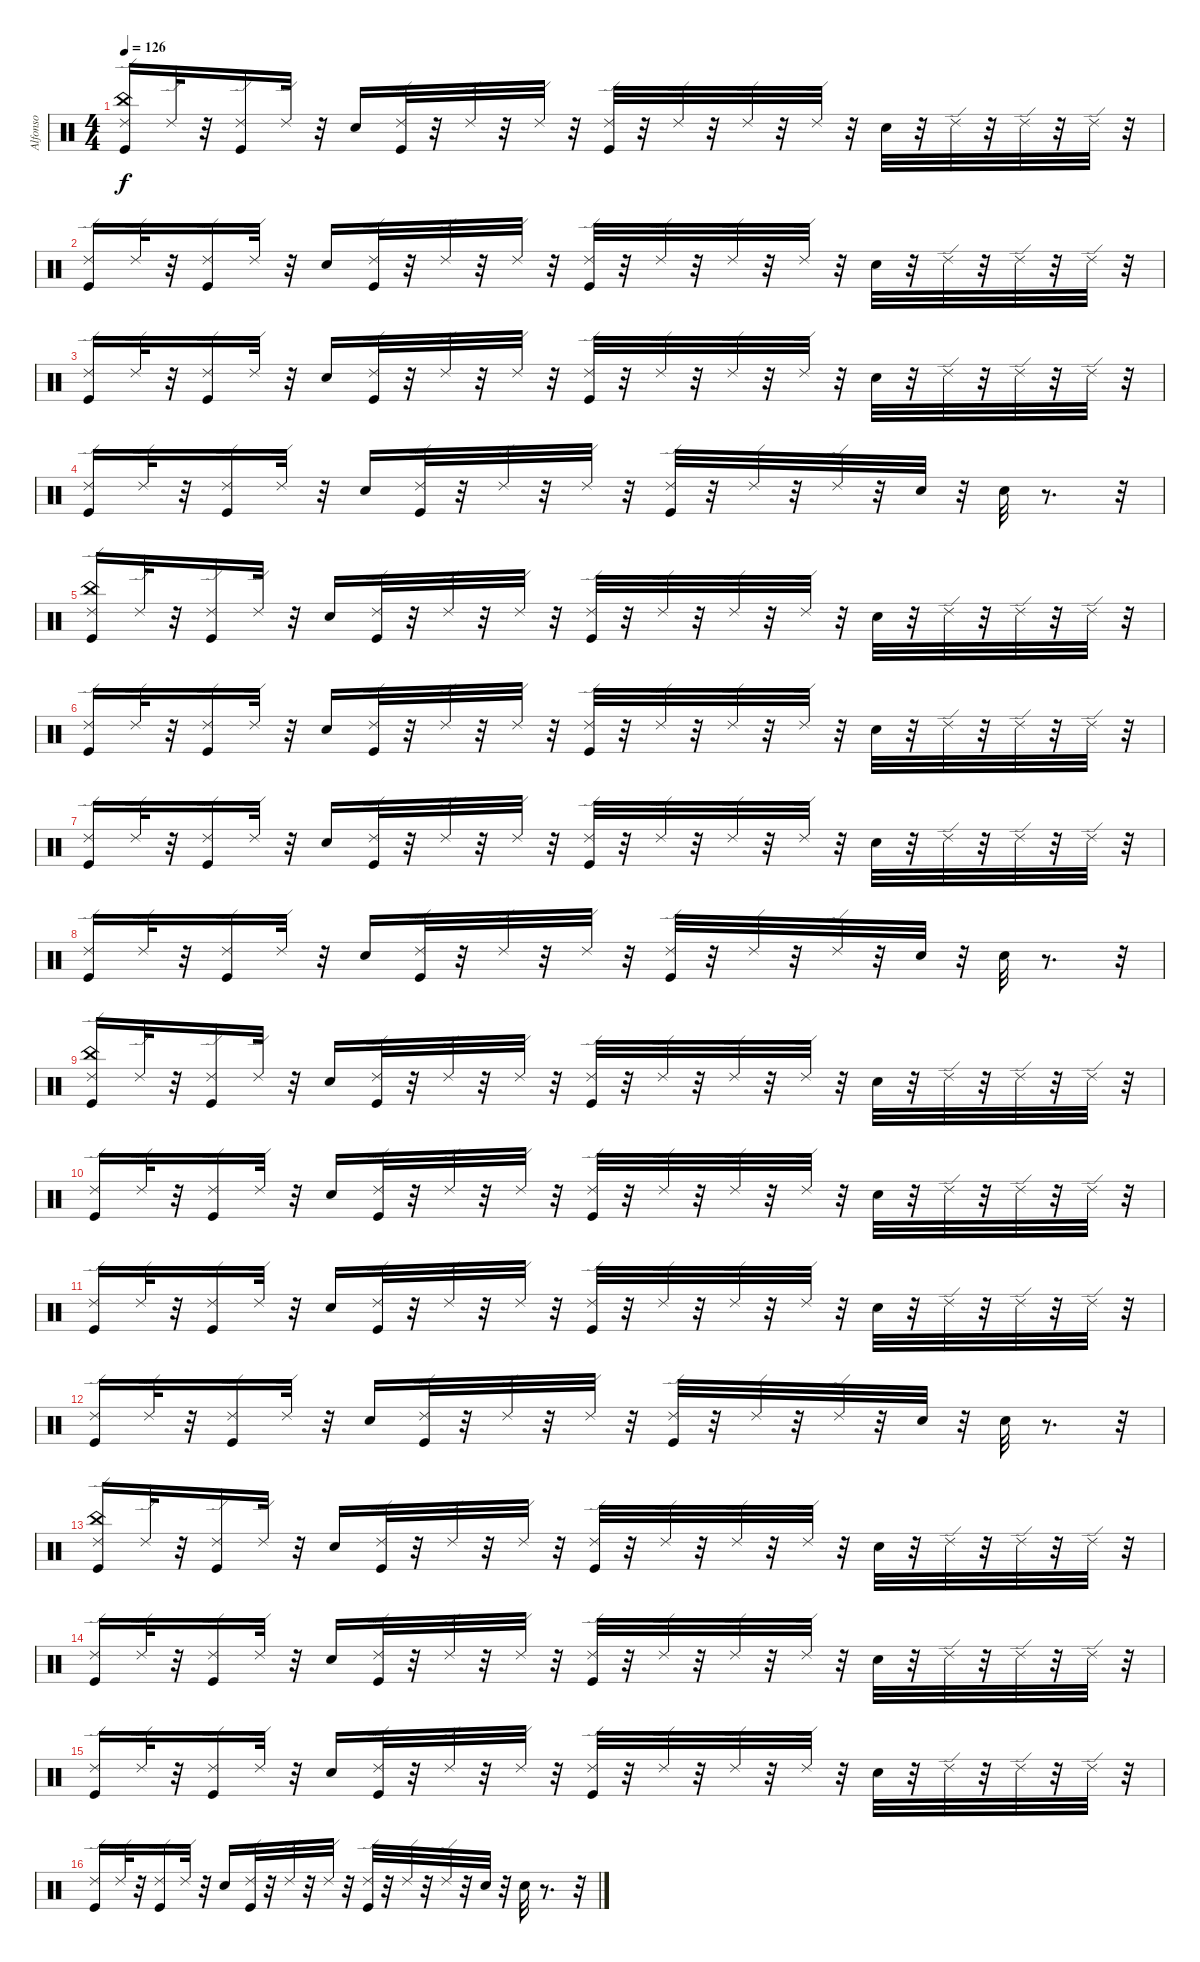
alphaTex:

\track ("Alfonso" "Alfonso") {instrument percussion}
\staff {score}
\articulation defaults
\ts (4 4)
\tempo 126
\clef neutral
\ks c
("Ride (edge) 2" "China (hit)" "Kick (hit)").16{dy f} "Ride (edge) 2".32 r.32 ("Ride (edge) 2" "Kick (hit)").16 "Ride (edge) 2".32 r.32 "Snare (hit) 2".16 ("Kick (hit)" "Ride (edge) 2").32 r.32 "Ride (edge) 2".32 r.32 "Ride (edge) 2".32 r.32 ("Kick (hit)" "Ride (edge) 2").32 r.32 "Ride (edge) 2".32 r.32 "Ride (edge) 2".32 r.32 "Ride (edge) 2".32 r.32 "Snare (hit) 2".32 r.32 "Ride (edge) 2".32 r.32 "Ride (edge) 2".32 r.32 "Ride (edge) 2".32 r.32 |
("Ride (edge) 2" "Kick (hit)").16 "Ride (edge) 2".32 r.32 ("Kick (hit)" "Ride (edge) 2").16 "Ride (edge) 2".32 r.32 "Snare (hit) 2".16 ("Ride (edge) 2" "Kick (hit)").32 r.32 "Ride (edge) 2".32 r.32 "Ride (edge) 2".32 r.32 ("Kick (hit)" "Ride (edge) 2").32 r.32 "Ride (edge) 2".32 r.32 "Ride (edge) 2".32 r.32 "Ride (edge) 2".32 r.32 "Snare (hit) 2".32 r.32 "Ride (edge) 2".32 r.32 "Ride (edge) 2".32 r.32 "Ride (edge) 2".32 r.32 |
("Kick (hit)" "Ride (edge) 2").16 "Ride (edge) 2".32 r.32 ("Kick (hit)" "Ride (edge) 2").16 "Ride (edge) 2".32 r.32 "Snare (hit) 2".16 ("Ride (edge) 2" "Kick (hit)").32 r.32 "Ride (edge) 2".32 r.32 "Ride (edge) 2".32 r.32 ("Ride (edge) 2" "Kick (hit)").32 r.32 "Ride (edge) 2".32 r.32 "Ride (edge) 2".32 r.32 "Ride (edge) 2".32 r.32 "Snare (hit) 2".32 r.32 "Ride (edge) 2".32 r.32 "Ride (edge) 2".32 r.32 "Ride (edge) 2".32 r.32 |
("Kick (hit)" "Ride (edge) 2").16 "Ride (edge) 2".32 r.32 ("Kick (hit)" "Ride (edge) 2").16 "Ride (edge) 2".32 r.32 "Snare (hit) 2".16 ("Kick (hit)" "Ride (edge) 2").32 r.32 "Ride (edge) 2".32 r.32 "Ride (edge) 2".32 r.32 ("Kick (hit)" "Ride (edge) 2").32 r.32 "Ride (edge) 2".32 r.32 "Ride (edge) 2".32 r.32 "Snare (hit) 2".32 r.32 "Snare (hit) 2".32 r.8{d} r.32 |
("Ride (edge) 2" "China (hit)" "Kick (hit)").16 "Ride (edge) 2".32 r.32 ("Ride (edge) 2" "Kick (hit)").16 "Ride (edge) 2".32 r.32 "Snare (hit) 2".16 ("Kick (hit)" "Ride (edge) 2").32 r.32 "Ride (edge) 2".32 r.32 "Ride (edge) 2".32 r.32 ("Kick (hit)" "Ride (edge) 2").32 r.32 "Ride (edge) 2".32 r.32 "Ride (edge) 2".32 r.32 "Ride (edge) 2".32 r.32 "Snare (hit) 2".32 r.32 "Ride (edge) 2".32 r.32 "Ride (edge) 2".32 r.32 "Ride (edge) 2".32 r.32 |
("Ride (edge) 2" "Kick (hit)").16 "Ride (edge) 2".32 r.32 ("Kick (hit)" "Ride (edge) 2").16 "Ride (edge) 2".32 r.32 "Snare (hit) 2".16 ("Ride (edge) 2" "Kick (hit)").32 r.32 "Ride (edge) 2".32 r.32 "Ride (edge) 2".32 r.32 ("Kick (hit)" "Ride (edge) 2").32 r.32 "Ride (edge) 2".32 r.32 "Ride (edge) 2".32 r.32 "Ride (edge) 2".32 r.32 "Snare (hit) 2".32 r.32 "Ride (edge) 2".32 r.32 "Ride (edge) 2".32 r.32 "Ride (edge) 2".32 r.32 |
("Kick (hit)" "Ride (edge) 2").16 "Ride (edge) 2".32 r.32 ("Kick (hit)" "Ride (edge) 2").16 "Ride (edge) 2".32 r.32 "Snare (hit) 2".16 ("Ride (edge) 2" "Kick (hit)").32 r.32 "Ride (edge) 2".32 r.32 "Ride (edge) 2".32 r.32 ("Ride (edge) 2" "Kick (hit)").32 r.32 "Ride (edge) 2".32 r.32 "Ride (edge) 2".32 r.32 "Ride (edge) 2".32 r.32 "Snare (hit) 2".32 r.32 "Ride (edge) 2".32 r.32 "Ride (edge) 2".32 r.32 "Ride (edge) 2".32 r.32 |
("Kick (hit)" "Ride (edge) 2").16 "Ride (edge) 2".32 r.32 ("Kick (hit)" "Ride (edge) 2").16 "Ride (edge) 2".32 r.32 "Snare (hit) 2".16 ("Kick (hit)" "Ride (edge) 2").32 r.32 "Ride (edge) 2".32 r.32 "Ride (edge) 2".32 r.32 ("Kick (hit)" "Ride (edge) 2").32 r.32 "Ride (edge) 2".32 r.32 "Ride (edge) 2".32 r.32 "Snare (hit) 2".32 r.32 "Snare (hit) 2".32 r.8{d} r.32 |
("Ride (edge) 2" "China (hit)" "Kick (hit)").16 "Ride (edge) 2".32 r.32 ("Ride (edge) 2" "Kick (hit)").16 "Ride (edge) 2".32 r.32 "Snare (hit) 2".16 ("Kick (hit)" "Ride (edge) 2").32 r.32 "Ride (edge) 2".32 r.32 "Ride (edge) 2".32 r.32 ("Kick (hit)" "Ride (edge) 2").32 r.32 "Ride (edge) 2".32 r.32 "Ride (edge) 2".32 r.32 "Ride (edge) 2".32 r.32 "Snare (hit) 2".32 r.32 "Ride (edge) 2".32 r.32 "Ride (edge) 2".32 r.32 "Ride (edge) 2".32 r.32 |
("Ride (edge) 2" "Kick (hit)").16 "Ride (edge) 2".32 r.32 ("Kick (hit)" "Ride (edge) 2").16 "Ride (edge) 2".32 r.32 "Snare (hit) 2".16 ("Ride (edge) 2" "Kick (hit)").32 r.32 "Ride (edge) 2".32 r.32 "Ride (edge) 2".32 r.32 ("Kick (hit)" "Ride (edge) 2").32 r.32 "Ride (edge) 2".32 r.32 "Ride (edge) 2".32 r.32 "Ride (edge) 2".32 r.32 "Snare (hit) 2".32 r.32 "Ride (edge) 2".32 r.32 "Ride (edge) 2".32 r.32 "Ride (edge) 2".32 r.32 |
("Kick (hit)" "Ride (edge) 2").16 "Ride (edge) 2".32 r.32 ("Kick (hit)" "Ride (edge) 2").16 "Ride (edge) 2".32 r.32 "Snare (hit) 2".16 ("Ride (edge) 2" "Kick (hit)").32 r.32 "Ride (edge) 2".32 r.32 "Ride (edge) 2".32 r.32 ("Ride (edge) 2" "Kick (hit)").32 r.32 "Ride (edge) 2".32 r.32 "Ride (edge) 2".32 r.32 "Ride (edge) 2".32 r.32 "Snare (hit) 2".32 r.32 "Ride (edge) 2".32 r.32 "Ride (edge) 2".32 r.32 "Ride (edge) 2".32 r.32 |
("Kick (hit)" "Ride (edge) 2").16 "Ride (edge) 2".32 r.32 ("Kick (hit)" "Ride (edge) 2").16 "Ride (edge) 2".32 r.32 "Snare (hit) 2".16 ("Kick (hit)" "Ride (edge) 2").32 r.32 "Ride (edge) 2".32 r.32 "Ride (edge) 2".32 r.32 ("Kick (hit)" "Ride (edge) 2").32 r.32 "Ride (edge) 2".32 r.32 "Ride (edge) 2".32 r.32 "Snare (hit) 2".32 r.32 "Snare (hit) 2".32 r.8{d} r.32 |
("Ride (edge) 2" "China (hit)" "Kick (hit)").16 "Ride (edge) 2".32 r.32 ("Ride (edge) 2" "Kick (hit)").16 "Ride (edge) 2".32 r.32 "Snare (hit) 2".16 ("Kick (hit)" "Ride (edge) 2").32 r.32 "Ride (edge) 2".32 r.32 "Ride (edge) 2".32 r.32 ("Kick (hit)" "Ride (edge) 2").32 r.32 "Ride (edge) 2".32 r.32 "Ride (edge) 2".32 r.32 "Ride (edge) 2".32 r.32 "Snare (hit) 2".32 r.32 "Ride (edge) 2".32 r.32 "Ride (edge) 2".32 r.32 "Ride (edge) 2".32 r.32 |
("Ride (edge) 2" "Kick (hit)").16 "Ride (edge) 2".32 r.32 ("Kick (hit)" "Ride (edge) 2").16 "Ride (edge) 2".32 r.32 "Snare (hit) 2".16 ("Ride (edge) 2" "Kick (hit)").32 r.32 "Ride (edge) 2".32 r.32 "Ride (edge) 2".32 r.32 ("Kick (hit)" "Ride (edge) 2").32 r.32 "Ride (edge) 2".32 r.32 "Ride (edge) 2".32 r.32 "Ride (edge) 2".32 r.32 "Snare (hit) 2".32 r.32 "Ride (edge) 2".32 r.32 "Ride (edge) 2".32 r.32 "Ride (edge) 2".32 r.32 |
("Kick (hit)" "Ride (edge) 2").16 "Ride (edge) 2".32 r.32 ("Kick (hit)" "Ride (edge) 2").16 "Ride (edge) 2".32 r.32 "Snare (hit) 2".16 ("Ride (edge) 2" "Kick (hit)").32 r.32 "Ride (edge) 2".32 r.32 "Ride (edge) 2".32 r.32 ("Ride (edge) 2" "Kick (hit)").32 r.32 "Ride (edge) 2".32 r.32 "Ride (edge) 2".32 r.32 "Ride (edge) 2".32 r.32 "Snare (hit) 2".32 r.32 "Ride (edge) 2".32 r.32 "Ride (edge) 2".32 r.32 "Ride (edge) 2".32 r.32 |
("Kick (hit)" "Ride (edge) 2").16 "Ride (edge) 2".32 r.32 ("Kick (hit)" "Ride (edge) 2").16 "Ride (edge) 2".32 r.32 "Snare (hit) 2".16 ("Kick (hit)" "Ride (edge) 2").32 r.32 "Ride (edge) 2".32 r.32 "Ride (edge) 2".32 r.32 ("Kick (hit)" "Ride (edge) 2").32 r.32 "Ride (edge) 2".32 r.32 "Ride (edge) 2".32 r.32 "Snare (hit) 2".32 r.32 "Snare (hit) 2".32 r.8{d} r.32
